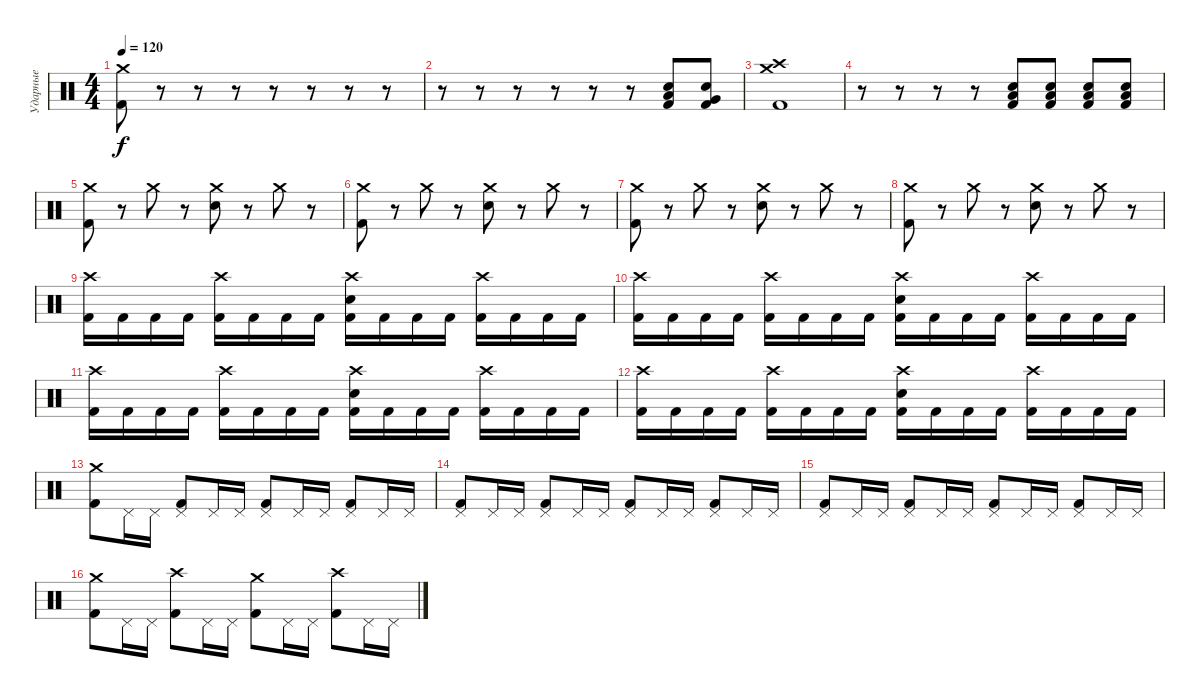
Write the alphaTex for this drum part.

\track ("Ударные" "Ударные") {instrument percussion}
\staff {score}
\articulation defaults
\ts (4 4)
\tempo 120
\clef neutral
\ks c
("Crash medium (hit)" "Kick (hit) 2").8{dy f} r.8 r.8 r.8 r.8 r.8 r.8 r.8 |
r.8 r.8 r.8 r.8 r.8 r.8 ("Electric Snare (hit)" "Low Tom (hit)" "Kick (hit) 2").8 ("Electric Snare (hit)" "Very Low Tom (hit)" "Kick (hit) 2").8 |
("Crash medium (hit)" "Crash high (hit)" "Kick (hit) 2").1 |
r.8 r.8 r.8 r.8 ("Electric Snare (hit)" "Low Tom (hit)" "Kick (hit) 2").8 ("Electric Snare (hit)" "Low Tom (hit)" "Kick (hit) 2").8 ("Electric Snare (hit)" "Low Tom (hit)" "Kick (hit) 2").8 ("Electric Snare (hit)" "Low Tom (hit)" "Kick (hit) 2").8 |
("Crash medium (hit)" "Kick (hit) 2").8 r.8 "Crash medium (hit)".8 r.8 ("Crash medium (hit)" "Electric Snare (hit)").8 r.8 "Crash medium (hit)".8 r.8 |
("Crash medium (hit)" "Kick (hit) 2").8 r.8 "Crash medium (hit)".8 r.8 ("Crash medium (hit)" "Electric Snare (hit)").8 r.8 "Crash medium (hit)".8 r.8 |
("Crash medium (hit)" "Kick (hit) 2").8 r.8 "Crash medium (hit)".8 r.8 ("Crash medium (hit)" "Electric Snare (hit)").8 r.8 "Crash medium (hit)".8 r.8 |
("Crash medium (hit)" "Kick (hit) 2").8 r.8 "Crash medium (hit)".8 r.8 ("Crash medium (hit)" "Electric Snare (hit)").8 r.8 "Crash medium (hit)".8 r.8 |
("Crash high (hit)" "Kick (hit) 2").16 "Kick (hit) 2".16 "Kick (hit) 2".16 "Kick (hit) 2".16 ("Crash high (hit)" "Kick (hit) 2").16 "Kick (hit) 2".16 "Kick (hit) 2".16 "Kick (hit) 2".16 ("Crash high (hit)" "Electric Snare (hit)" "Kick (hit) 2").16 "Kick (hit) 2".16 "Kick (hit) 2".16 "Kick (hit) 2".16 ("Crash high (hit)" "Kick (hit) 2").16 "Kick (hit) 2".16 "Kick (hit) 2".16 "Kick (hit) 2".16 |
("Crash high (hit)" "Kick (hit) 2").16 "Kick (hit) 2".16 "Kick (hit) 2".16 "Kick (hit) 2".16 ("Crash high (hit)" "Kick (hit) 2").16 "Kick (hit) 2".16 "Kick (hit) 2".16 "Kick (hit) 2".16 ("Crash high (hit)" "Electric Snare (hit)" "Kick (hit) 2").16 "Kick (hit) 2".16 "Kick (hit) 2".16 "Kick (hit) 2".16 ("Crash high (hit)" "Kick (hit) 2").16 "Kick (hit) 2".16 "Kick (hit) 2".16 "Kick (hit) 2".16 |
("Crash high (hit)" "Kick (hit) 2").16 "Kick (hit) 2".16 "Kick (hit) 2".16 "Kick (hit) 2".16 ("Crash high (hit)" "Kick (hit) 2").16 "Kick (hit) 2".16 "Kick (hit) 2".16 "Kick (hit) 2".16 ("Crash high (hit)" "Electric Snare (hit)" "Kick (hit) 2").16 "Kick (hit) 2".16 "Kick (hit) 2".16 "Kick (hit) 2".16 ("Crash high (hit)" "Kick (hit) 2").16 "Kick (hit) 2".16 "Kick (hit) 2".16 "Kick (hit) 2".16 |
("Crash high (hit)" "Kick (hit) 2").16 "Kick (hit) 2".16 "Kick (hit) 2".16 "Kick (hit) 2".16 ("Crash high (hit)" "Kick (hit) 2").16 "Kick (hit) 2".16 "Kick (hit) 2".16 "Kick (hit) 2".16 ("Crash high (hit)" "Electric Snare (hit)" "Kick (hit) 2").16 "Kick (hit) 2".16 "Kick (hit) 2".16 "Kick (hit) 2".16 ("Crash high (hit)" "Kick (hit) 2").16 "Kick (hit) 2".16 "Kick (hit) 2".16 "Kick (hit) 2".16 |
("Crash medium (hit)" "Kick (hit) 2").8 "Pedal Hi-Hat (hit)".16 "Pedal Hi-Hat (hit)".16 ("Pedal Hi-Hat (hit)" "Kick (hit) 2").8 "Pedal Hi-Hat (hit)".16 "Pedal Hi-Hat (hit)".16 ("Pedal Hi-Hat (hit)" "Kick (hit) 2").8 "Pedal Hi-Hat (hit)".16 "Pedal Hi-Hat (hit)".16 ("Pedal Hi-Hat (hit)" "Kick (hit) 2").8 "Pedal Hi-Hat (hit)".16 "Pedal Hi-Hat (hit)".16 |
("Pedal Hi-Hat (hit)" "Kick (hit) 2").8 "Pedal Hi-Hat (hit)".16 "Pedal Hi-Hat (hit)".16 ("Pedal Hi-Hat (hit)" "Kick (hit) 2").8 "Pedal Hi-Hat (hit)".16 "Pedal Hi-Hat (hit)".16 ("Pedal Hi-Hat (hit)" "Kick (hit) 2").8 "Pedal Hi-Hat (hit)".16 "Pedal Hi-Hat (hit)".16 ("Pedal Hi-Hat (hit)" "Kick (hit) 2").8 "Pedal Hi-Hat (hit)".16 "Pedal Hi-Hat (hit)".16 |
("Pedal Hi-Hat (hit)" "Kick (hit) 2").8 "Pedal Hi-Hat (hit)".16 "Pedal Hi-Hat (hit)".16 ("Pedal Hi-Hat (hit)" "Kick (hit) 2").8 "Pedal Hi-Hat (hit)".16 "Pedal Hi-Hat (hit)".16 ("Pedal Hi-Hat (hit)" "Kick (hit) 2").8 "Pedal Hi-Hat (hit)".16 "Pedal Hi-Hat (hit)".16 ("Pedal Hi-Hat (hit)" "Kick (hit) 2").8 "Pedal Hi-Hat (hit)".16 "Pedal Hi-Hat (hit)".16 |
("Crash medium (hit)" "Kick (hit) 2").8 "Pedal Hi-Hat (hit)".16 "Pedal Hi-Hat (hit)".16 ("Crash high (hit)" "Kick (hit) 2").8 "Pedal Hi-Hat (hit)".16 "Pedal Hi-Hat (hit)".16 ("Crash medium (hit)" "Kick (hit) 2").8 "Pedal Hi-Hat (hit)".16 "Pedal Hi-Hat (hit)".16 ("Crash high (hit)" "Kick (hit) 2").8 "Pedal Hi-Hat (hit)".16 "Pedal Hi-Hat (hit)".16
